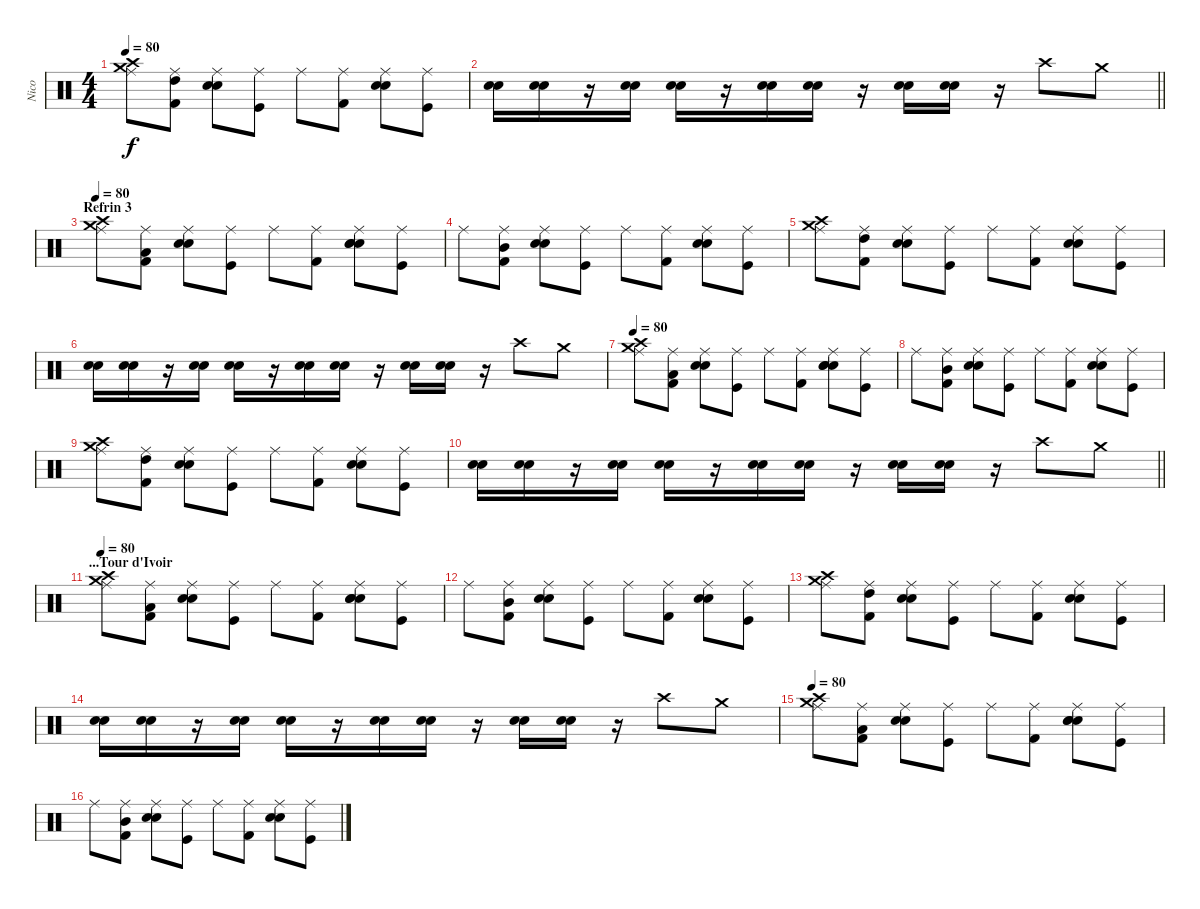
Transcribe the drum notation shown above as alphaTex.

\track ("Nico" "Nico") {instrument percussion}
\staff {score}
\articulation defaults
\ts (4 4)
\tempo 80
\clef neutral
\ks c
("Ride (middle)" "Crash high (hit)" "Crash medium (hit)").8{dy f volume 13} ("Ride (middle)" "High Tom (hit)" "Kick (hit) 2").8 ("Ride (middle)" "Electric Snare (hit)" "Snare (hit) 2").8 ("Ride (middle)" "Kick (hit)").8 "Ride (middle)".8 ("Ride (middle)" "Kick (hit) 2").8 ("Ride (middle)" "Snare (hit) 2" "Electric Snare (hit)").8 ("Ride (middle)" "Kick (hit)").8 |
\barLineRight lightlight
("Snare (hit) 2" "Electric Snare (hit)").16 ("Snare (hit) 2" "Electric Snare (hit)").16 r.16 ("Snare (hit) 2" "Electric Snare (hit)").16 ("Snare (hit) 2" "Electric Snare (hit)").16 r.16 ("Snare (hit) 2" "Electric Snare (hit)").16 ("Snare (hit) 2" "Electric Snare (hit)").16 r.16 ("Snare (hit) 2" "Electric Snare (hit)").16 ("Snare (hit) 2" "Electric Snare (hit)").16 r.16 "Crash high (hit)".8 "Crash medium (hit)".8 |
\section ("" "Refrin 3")
\tempo 80
("Ride (middle)" "Crash medium (hit)" "Crash high (hit)").8{volume 13} ("Ride (middle)" "Low Tom (hit)" "Kick (hit) 2").8 ("Ride (middle)" "Snare (hit) 2" "Electric Snare (hit)").8 ("Ride (middle)" "Kick (hit)").8 "Ride (middle)".8 ("Ride (middle)" "Kick (hit) 2").8 ("Ride (middle)" "Snare (hit) 2" "Electric Snare (hit)" "Snare (hit) 2").8 ("Ride (middle)" "Kick (hit)").8 |
"Ride (middle)".8{volume 13} ("Ride (middle)" "Mid Tom (hit)" "Kick (hit) 2").8 ("Ride (middle)" "Snare (hit) 2" "Electric Snare (hit)").8 ("Ride (middle)" "Kick (hit)").8 "Ride (middle)".8 ("Ride (middle)" "Kick (hit) 2").8 ("Ride (middle)" "Electric Snare (hit)" "Snare (hit) 2").8 ("Ride (middle)" "Kick (hit)").8 |
("Ride (middle)" "Crash medium (hit)" "Crash high (hit)").8{volume 13} ("Ride (middle)" "High Tom (hit)" "Kick (hit) 2").8 ("Ride (middle)" "Electric Snare (hit)" "Snare (hit) 2").8 ("Ride (middle)" "Kick (hit)").8 "Ride (middle)".8 ("Ride (middle)" "Kick (hit) 2").8 ("Ride (middle)" "Snare (hit) 2" "Electric Snare (hit)").8 ("Ride (middle)" "Kick (hit)").8 |
("Snare (hit) 2" "Electric Snare (hit)").16 ("Snare (hit) 2" "Electric Snare (hit)").16 r.16 ("Snare (hit) 2" "Electric Snare (hit)").16 ("Snare (hit) 2" "Electric Snare (hit)").16 r.16 ("Snare (hit) 2" "Electric Snare (hit)").16 ("Snare (hit) 2" "Electric Snare (hit)").16 r.16 ("Snare (hit) 2" "Electric Snare (hit)").16 ("Snare (hit) 2" "Electric Snare (hit)").16 r.16 "Crash high (hit)".8 "Crash medium (hit)".8 |
\tempo 80
("Ride (middle)" "Crash high (hit)" "Crash medium (hit)").8{volume 13} ("Ride (middle)" "Low Tom (hit)" "Kick (hit) 2").8 ("Ride (middle)" "Snare (hit) 2" "Electric Snare (hit)").8 ("Ride (middle)" "Kick (hit)").8 "Ride (middle)".8 ("Ride (middle)" "Kick (hit) 2").8 ("Ride (middle)" "Snare (hit) 2" "Electric Snare (hit)" "Snare (hit) 2").8 ("Ride (middle)" "Kick (hit)").8 |
"Ride (middle)".8{volume 13} ("Ride (middle)" "Mid Tom (hit)" "Kick (hit) 2").8 ("Ride (middle)" "Snare (hit) 2" "Electric Snare (hit)").8 ("Ride (middle)" "Kick (hit)").8 "Ride (middle)".8 ("Ride (middle)" "Kick (hit) 2").8 ("Ride (middle)" "Electric Snare (hit)" "Snare (hit) 2").8 ("Ride (middle)" "Kick (hit)").8 |
("Ride (middle)" "Crash high (hit)" "Crash medium (hit)").8{volume 13} ("Ride (middle)" "High Tom (hit)" "Kick (hit) 2").8 ("Ride (middle)" "Electric Snare (hit)" "Snare (hit) 2").8 ("Ride (middle)" "Kick (hit)").8 "Ride (middle)".8 ("Ride (middle)" "Kick (hit) 2").8 ("Ride (middle)" "Snare (hit) 2" "Electric Snare (hit)").8 ("Ride (middle)" "Kick (hit)").8 |
\barLineRight lightlight
("Snare (hit) 2" "Electric Snare (hit)").16 ("Snare (hit) 2" "Electric Snare (hit)").16 r.16 ("Snare (hit) 2" "Electric Snare (hit)").16 ("Snare (hit) 2" "Electric Snare (hit)").16 r.16 ("Snare (hit) 2" "Electric Snare (hit)").16 ("Snare (hit) 2" "Electric Snare (hit)").16 r.16 ("Snare (hit) 2" "Electric Snare (hit)").16 ("Snare (hit) 2" "Electric Snare (hit)").16 r.16 "Crash high (hit)".8 "Crash medium (hit)".8 |
\section ("" "...Tour d'Ivoir")
\tempo 80
("Ride (middle)" "Crash medium (hit)" "Crash high (hit)").8{volume 13} ("Ride (middle)" "Low Tom (hit)" "Kick (hit) 2").8 ("Ride (middle)" "Snare (hit) 2" "Electric Snare (hit)").8 ("Ride (middle)" "Kick (hit)").8 "Ride (middle)".8 ("Ride (middle)" "Kick (hit) 2").8 ("Ride (middle)" "Snare (hit) 2" "Electric Snare (hit)" "Snare (hit) 2").8 ("Ride (middle)" "Kick (hit)").8 |
"Ride (middle)".8{volume 13} ("Ride (middle)" "Mid Tom (hit)" "Kick (hit) 2").8 ("Ride (middle)" "Snare (hit) 2" "Electric Snare (hit)").8 ("Ride (middle)" "Kick (hit)").8 "Ride (middle)".8 ("Ride (middle)" "Kick (hit) 2").8 ("Ride (middle)" "Electric Snare (hit)" "Snare (hit) 2").8 ("Ride (middle)" "Kick (hit)").8 |
("Ride (middle)" "Crash medium (hit)" "Crash high (hit)").8{volume 13} ("Ride (middle)" "High Tom (hit)" "Kick (hit) 2").8 ("Ride (middle)" "Electric Snare (hit)" "Snare (hit) 2").8 ("Ride (middle)" "Kick (hit)").8 "Ride (middle)".8 ("Ride (middle)" "Kick (hit) 2").8 ("Ride (middle)" "Snare (hit) 2" "Electric Snare (hit)").8 ("Ride (middle)" "Kick (hit)").8 |
("Snare (hit) 2" "Electric Snare (hit)").16 ("Snare (hit) 2" "Electric Snare (hit)").16 r.16 ("Snare (hit) 2" "Electric Snare (hit)").16 ("Snare (hit) 2" "Electric Snare (hit)").16 r.16 ("Snare (hit) 2" "Electric Snare (hit)").16 ("Snare (hit) 2" "Electric Snare (hit)").16 r.16 ("Snare (hit) 2" "Electric Snare (hit)").16 ("Snare (hit) 2" "Electric Snare (hit)").16 r.16 "Crash high (hit)".8 "Crash medium (hit)".8 |
\tempo 80
("Ride (middle)" "Crash high (hit)" "Crash medium (hit)").8{volume 13} ("Ride (middle)" "Low Tom (hit)" "Kick (hit) 2").8 ("Ride (middle)" "Snare (hit) 2" "Electric Snare (hit)").8 ("Ride (middle)" "Kick (hit)").8 "Ride (middle)".8 ("Ride (middle)" "Kick (hit) 2").8 ("Ride (middle)" "Snare (hit) 2" "Electric Snare (hit)" "Snare (hit) 2").8 ("Ride (middle)" "Kick (hit)").8 |
"Ride (middle)".8{volume 13} ("Ride (middle)" "Mid Tom (hit)" "Kick (hit) 2").8 ("Ride (middle)" "Snare (hit) 2" "Electric Snare (hit)").8 ("Ride (middle)" "Kick (hit)").8 "Ride (middle)".8 ("Ride (middle)" "Kick (hit) 2").8 ("Ride (middle)" "Electric Snare (hit)" "Snare (hit) 2").8 ("Ride (middle)" "Kick (hit)").8
